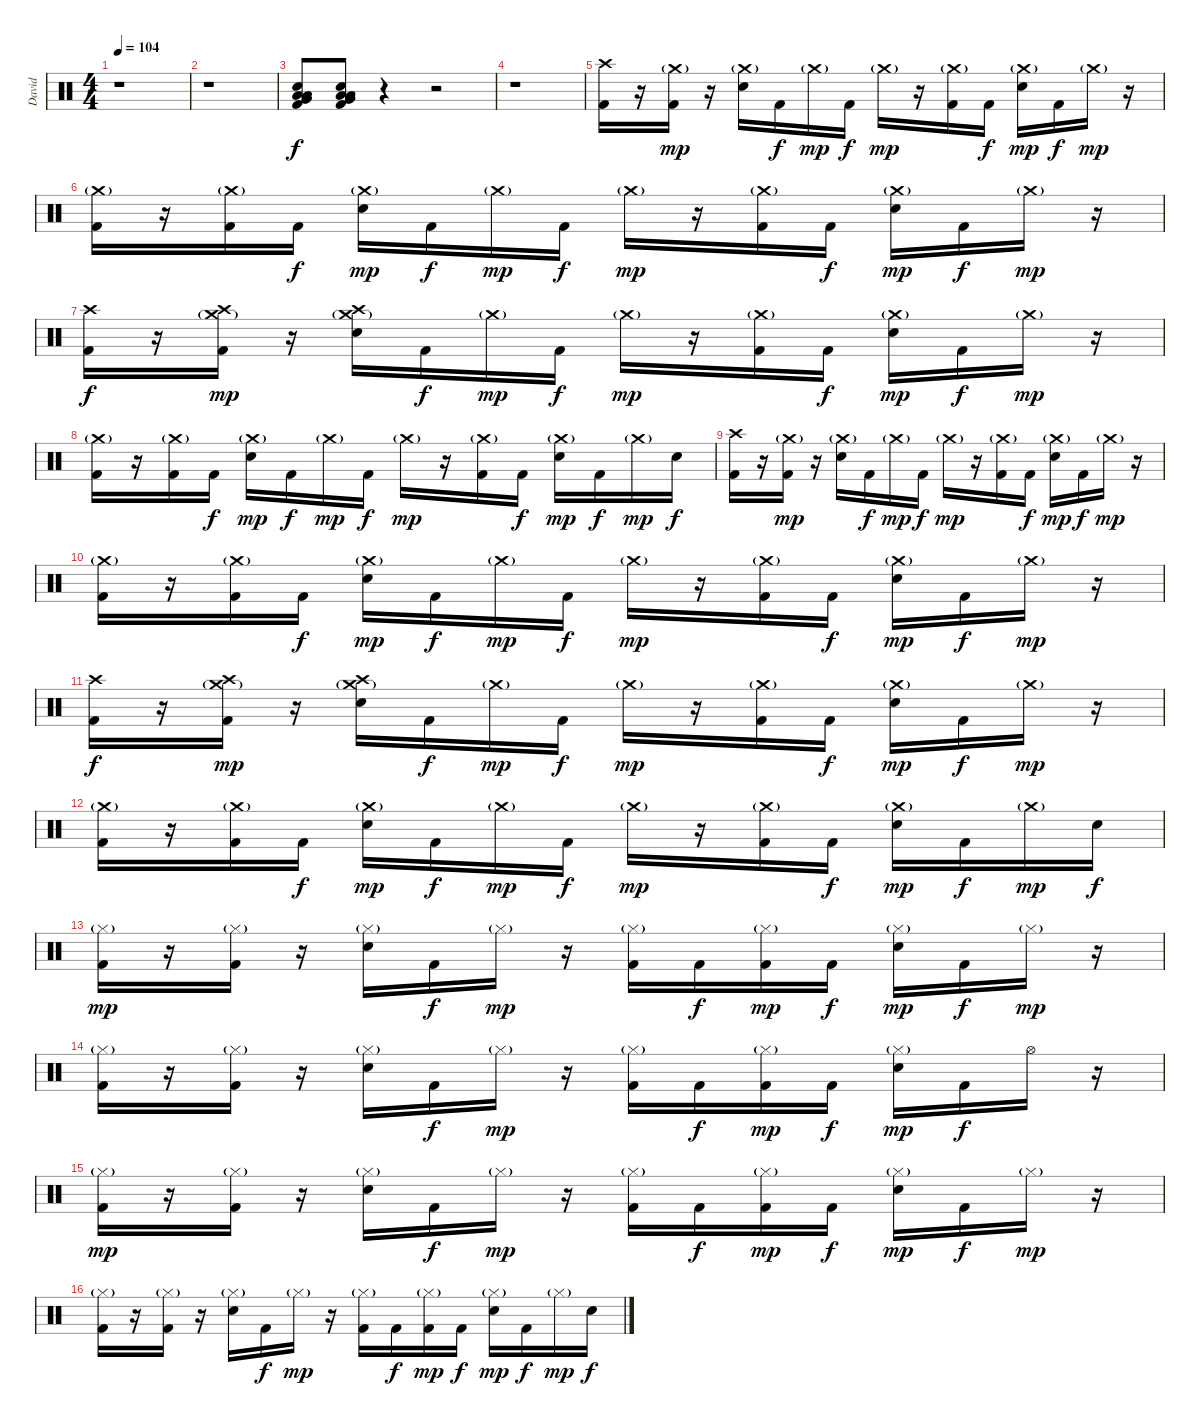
\track ("David" "David") {instrument percussion}
\staff {score}
\articulation defaults
\ts (4 4)
\tempo 104
\clef neutral
\ks c
r.1{dy f} |
r.1 |
("Electric Snare (hit)" "Very Low Tom (hit)" "Low Floor Tom (hit)" "Low Floor Tom (hit)" "Kick (hit) 2").8 ("Electric Snare (hit)" "Very Low Tom (hit)" "Low Floor Tom (hit)" "Low Floor Tom (hit)" "Kick (hit) 2").8 r.4 r.2 |
r.1 |
("Crash high (hit)" "Kick (hit) 2").16 r.16 ("Crash medium (hit)"{g} "Kick (hit) 2").16{dy mp} r.16 ("Crash medium (hit)"{g} "Electric Snare (hit)").16 "Kick (hit) 2".16{dy f} "Crash medium (hit)"{g}.16{dy mp} "Kick (hit) 2".16{dy f} "Crash medium (hit)"{g}.16{dy mp} r.16 ("Crash medium (hit)"{g} "Kick (hit) 2").16 "Kick (hit) 2".16{dy f} ("Crash medium (hit)"{g} "Electric Snare (hit)").16{dy mp} "Kick (hit) 2".16{dy f} "Crash medium (hit)"{g}.16{dy mp} r.16 |
("Crash medium (hit)"{g} "Kick (hit) 2").16 r.16 ("Crash medium (hit)"{g} "Kick (hit) 2").16 "Kick (hit) 2".16{dy f} ("Crash medium (hit)"{g} "Electric Snare (hit)").16{dy mp} "Kick (hit) 2".16{dy f} "Crash medium (hit)"{g}.16{dy mp} "Kick (hit) 2".16{dy f} "Crash medium (hit)"{g}.16{dy mp} r.16 ("Crash medium (hit)"{g} "Kick (hit) 2").16 "Kick (hit) 2".16{dy f} ("Crash medium (hit)"{g} "Electric Snare (hit)").16{dy mp} "Kick (hit) 2".16{dy f} "Crash medium (hit)"{g}.16{dy mp} r.16 |
("Crash high (hit)" "Kick (hit) 2").16{dy f} r.16 ("Crash high (hit)" "Crash medium (hit)"{g} "Kick (hit) 2").16{dy mp} r.16 ("Crash high (hit)" "Crash medium (hit)"{g} "Electric Snare (hit)").16 "Kick (hit) 2".16{dy f} "Crash medium (hit)"{g}.16{dy mp} "Kick (hit) 2".16{dy f} "Crash medium (hit)"{g}.16{dy mp} r.16 ("Crash medium (hit)"{g} "Kick (hit) 2").16 "Kick (hit) 2".16{dy f} ("Crash medium (hit)"{g} "Electric Snare (hit)").16{dy mp} "Kick (hit) 2".16{dy f} "Crash medium (hit)"{g}.16{dy mp} r.16 |
("Crash medium (hit)"{g} "Kick (hit) 2").16 r.16 ("Crash medium (hit)"{g} "Kick (hit) 2").16 "Kick (hit) 2".16{dy f} ("Crash medium (hit)"{g} "Electric Snare (hit)").16{dy mp} "Kick (hit) 2".16{dy f} "Crash medium (hit)"{g}.16{dy mp} "Kick (hit) 2".16{dy f} "Crash medium (hit)"{g}.16{dy mp} r.16 ("Crash medium (hit)"{g} "Kick (hit) 2").16 "Kick (hit) 2".16{dy f} ("Crash medium (hit)"{g} "Electric Snare (hit)").16{dy mp} "Kick (hit) 2".16{dy f} "Crash medium (hit)"{g}.16{dy mp} "Electric Snare (hit)".16{dy f} |
("Crash high (hit)" "Kick (hit) 2").16 r.16 ("Crash medium (hit)"{g} "Kick (hit) 2").16{dy mp} r.16 ("Crash medium (hit)"{g} "Electric Snare (hit)").16 "Kick (hit) 2".16{dy f} "Crash medium (hit)"{g}.16{dy mp} "Kick (hit) 2".16{dy f} "Crash medium (hit)"{g}.16{dy mp} r.16 ("Crash medium (hit)"{g} "Kick (hit) 2").16 "Kick (hit) 2".16{dy f} ("Crash medium (hit)"{g} "Electric Snare (hit)").16{dy mp} "Kick (hit) 2".16{dy f} "Crash medium (hit)"{g}.16{dy mp} r.16 |
("Crash medium (hit)"{g} "Kick (hit) 2").16 r.16 ("Crash medium (hit)"{g} "Kick (hit) 2").16 "Kick (hit) 2".16{dy f} ("Crash medium (hit)"{g} "Electric Snare (hit)").16{dy mp} "Kick (hit) 2".16{dy f} "Crash medium (hit)"{g}.16{dy mp} "Kick (hit) 2".16{dy f} "Crash medium (hit)"{g}.16{dy mp} r.16 ("Crash medium (hit)"{g} "Kick (hit) 2").16 "Kick (hit) 2".16{dy f} ("Crash medium (hit)"{g} "Electric Snare (hit)").16{dy mp} "Kick (hit) 2".16{dy f} "Crash medium (hit)"{g}.16{dy mp} r.16 |
("Crash high (hit)" "Kick (hit) 2").16{dy f} r.16 ("Crash high (hit)" "Crash medium (hit)"{g} "Kick (hit) 2").16{dy mp} r.16 ("Crash high (hit)" "Crash medium (hit)"{g} "Electric Snare (hit)").16 "Kick (hit) 2".16{dy f} "Crash medium (hit)"{g}.16{dy mp} "Kick (hit) 2".16{dy f} "Crash medium (hit)"{g}.16{dy mp} r.16 ("Crash medium (hit)"{g} "Kick (hit) 2").16 "Kick (hit) 2".16{dy f} ("Crash medium (hit)"{g} "Electric Snare (hit)").16{dy mp} "Kick (hit) 2".16{dy f} "Crash medium (hit)"{g}.16{dy mp} r.16 |
("Crash medium (hit)"{g} "Kick (hit) 2").16 r.16 ("Crash medium (hit)"{g} "Kick (hit) 2").16 "Kick (hit) 2".16{dy f} ("Crash medium (hit)"{g} "Electric Snare (hit)").16{dy mp} "Kick (hit) 2".16{dy f} "Crash medium (hit)"{g}.16{dy mp} "Kick (hit) 2".16{dy f} "Crash medium (hit)"{g}.16{dy mp} r.16 ("Crash medium (hit)"{g} "Kick (hit) 2").16 "Kick (hit) 2".16{dy f} ("Crash medium (hit)"{g} "Electric Snare (hit)").16{dy mp} "Kick (hit) 2".16{dy f} "Crash medium (hit)"{g}.16{dy mp} "Electric Snare (hit)".16{dy f} |
("Hi-Hat (closed)"{g} "Kick (hit) 2").16{dy mp} r.16 ("Hi-Hat (closed)"{g} "Kick (hit) 2").16 r.16 ("Hi-Hat (closed)"{g} "Electric Snare (hit)").16 "Kick (hit) 2".16{dy f} "Hi-Hat (closed)"{g}.16{dy mp} r.16 ("Hi-Hat (closed)"{g} "Kick (hit) 2").16 "Kick (hit) 2".16{dy f} ("Hi-Hat (closed)"{g} "Kick (hit) 2").16{dy mp} "Kick (hit) 2".16{dy f} ("Hi-Hat (closed)"{g} "Electric Snare (hit)").16{dy mp} "Kick (hit) 2".16{dy f} "Hi-Hat (closed)"{g}.16{dy mp} r.16 |
("Hi-Hat (closed)"{g} "Kick (hit) 2").16 r.16 ("Hi-Hat (closed)"{g} "Kick (hit) 2").16 r.16 ("Hi-Hat (closed)"{g} "Electric Snare (hit)").16 "Kick (hit) 2".16{dy f} "Hi-Hat (closed)"{g}.16{dy mp} r.16 ("Hi-Hat (closed)"{g} "Kick (hit) 2").16 "Kick (hit) 2".16{dy f} ("Hi-Hat (closed)"{g} "Kick (hit) 2").16{dy mp} "Kick (hit) 2".16{dy f} ("Hi-Hat (closed)"{g} "Electric Snare (hit)").16{dy mp} "Kick (hit) 2".16{dy f} "Hi-Hat (open)".16 r.16 |
("Hi-Hat (closed)"{g} "Kick (hit) 2").16{dy mp} r.16 ("Hi-Hat (closed)"{g} "Kick (hit) 2").16 r.16 ("Hi-Hat (closed)"{g} "Electric Snare (hit)").16 "Kick (hit) 2".16{dy f} "Hi-Hat (closed)"{g}.16{dy mp} r.16 ("Hi-Hat (closed)"{g} "Kick (hit) 2").16 "Kick (hit) 2".16{dy f} ("Hi-Hat (closed)"{g} "Kick (hit) 2").16{dy mp} "Kick (hit) 2".16{dy f} ("Hi-Hat (closed)"{g} "Electric Snare (hit)").16{dy mp} "Kick (hit) 2".16{dy f} "Hi-Hat (closed)"{g}.16{dy mp} r.16 |
("Hi-Hat (closed)"{g} "Kick (hit) 2").16 r.16 ("Hi-Hat (closed)"{g} "Kick (hit) 2").16 r.16 ("Hi-Hat (closed)"{g} "Electric Snare (hit)").16 "Kick (hit) 2".16{dy f} "Hi-Hat (closed)"{g}.16{dy mp} r.16 ("Hi-Hat (closed)"{g} "Kick (hit) 2").16 "Kick (hit) 2".16{dy f} ("Hi-Hat (closed)"{g} "Kick (hit) 2").16{dy mp} "Kick (hit) 2".16{dy f} ("Hi-Hat (closed)"{g} "Electric Snare (hit)").16{dy mp} "Kick (hit) 2".16{dy f} "Hi-Hat (closed)"{g}.16{dy mp} "Electric Snare (hit)".16{dy f}
